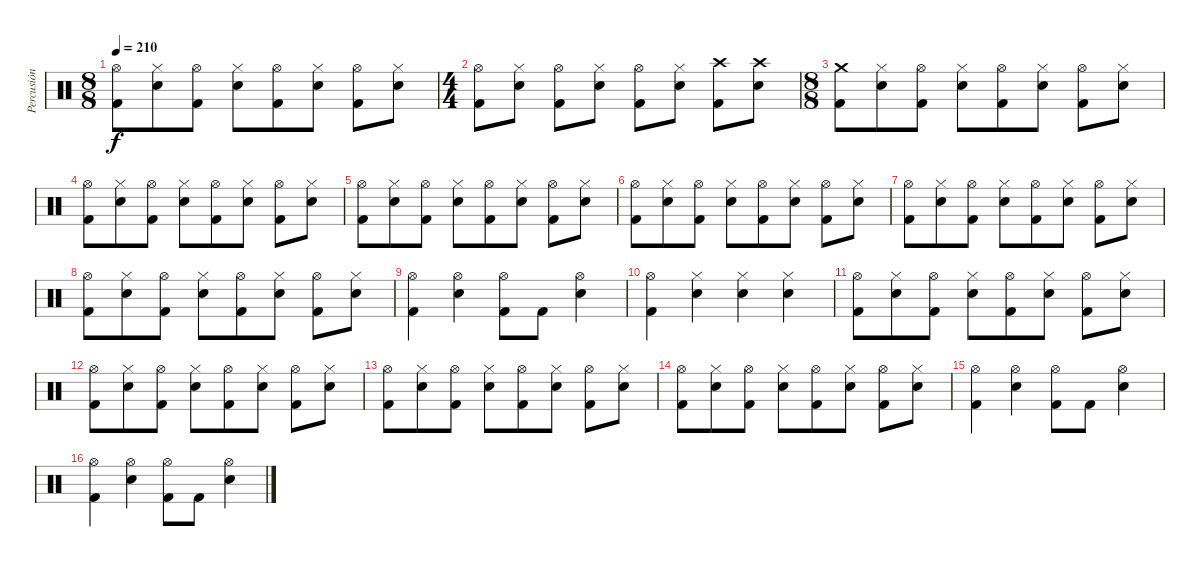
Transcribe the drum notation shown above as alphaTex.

\track ("Percusión" "Percusión") {instrument percussion}
\staff {score}
\articulation defaults
\ts (8 8)
\tempo 210
\clef neutral
\ks c
("Hi-Hat (open)" "Kick (hit) 2").8{dy f} ("Hi-Hat (closed)" "Electric Snare (hit)").8 ("Hi-Hat (open)" "Kick (hit) 2").8 ("Hi-Hat (closed)" "Electric Snare (hit)").8 ("Hi-Hat (open)" "Kick (hit) 2").8 ("Hi-Hat (closed)" "Electric Snare (hit)").8 ("Hi-Hat (open)" "Kick (hit) 2").8 ("Hi-Hat (closed)" "Electric Snare (hit)").8 |
\ts (4 4)
("Hi-Hat (open)" "Kick (hit) 2").8 ("Hi-Hat (closed)" "Electric Snare (hit)").8 ("Hi-Hat (open)" "Kick (hit) 2").8 ("Hi-Hat (closed)" "Electric Snare (hit)").8 ("Hi-Hat (open)" "Kick (hit) 2").8 ("Hi-Hat (closed)" "Electric Snare (hit)").8 ("Crash high (hit)" "Kick (hit) 2").8 ("Crash high (hit)" "Electric Snare (hit)").8 |
\ts (8 8)
("Crash medium (hit)" "Kick (hit) 2").8 ("Hi-Hat (closed)" "Electric Snare (hit)").8 ("Hi-Hat (open)" "Kick (hit) 2").8 ("Hi-Hat (closed)" "Electric Snare (hit)").8 ("Hi-Hat (open)" "Kick (hit) 2").8 ("Hi-Hat (closed)" "Electric Snare (hit)").8 ("Hi-Hat (open)" "Kick (hit) 2").8 ("Hi-Hat (closed)" "Electric Snare (hit)").8 |
("Hi-Hat (open)" "Kick (hit) 2").8 ("Hi-Hat (closed)" "Electric Snare (hit)").8 ("Hi-Hat (open)" "Kick (hit) 2").8 ("Hi-Hat (closed)" "Electric Snare (hit)").8 ("Hi-Hat (open)" "Kick (hit) 2").8 ("Hi-Hat (closed)" "Electric Snare (hit)").8 ("Hi-Hat (open)" "Kick (hit) 2").8 ("Hi-Hat (closed)" "Electric Snare (hit)").8 |
("Hi-Hat (open)" "Kick (hit) 2").8 ("Hi-Hat (closed)" "Electric Snare (hit)").8 ("Hi-Hat (open)" "Kick (hit) 2").8 ("Hi-Hat (closed)" "Electric Snare (hit)").8 ("Hi-Hat (open)" "Kick (hit) 2").8 ("Hi-Hat (closed)" "Electric Snare (hit)").8 ("Hi-Hat (open)" "Kick (hit) 2").8 ("Hi-Hat (closed)" "Electric Snare (hit)").8 |
("Hi-Hat (open)" "Kick (hit) 2").8 ("Hi-Hat (closed)" "Electric Snare (hit)").8 ("Hi-Hat (open)" "Kick (hit) 2").8 ("Hi-Hat (closed)" "Electric Snare (hit)").8 ("Hi-Hat (open)" "Kick (hit) 2").8 ("Hi-Hat (closed)" "Electric Snare (hit)").8 ("Hi-Hat (open)" "Kick (hit) 2").8 ("Hi-Hat (closed)" "Electric Snare (hit)").8 |
("Hi-Hat (open)" "Kick (hit) 2").8 ("Hi-Hat (closed)" "Electric Snare (hit)").8 ("Hi-Hat (open)" "Kick (hit) 2").8 ("Hi-Hat (closed)" "Electric Snare (hit)").8 ("Hi-Hat (open)" "Kick (hit) 2").8 ("Hi-Hat (closed)" "Electric Snare (hit)").8 ("Hi-Hat (open)" "Kick (hit) 2").8 ("Hi-Hat (closed)" "Electric Snare (hit)").8 |
("Hi-Hat (open)" "Kick (hit) 2").8 ("Hi-Hat (closed)" "Electric Snare (hit)").8 ("Hi-Hat (open)" "Kick (hit) 2").8 ("Hi-Hat (closed)" "Electric Snare (hit)").8 ("Hi-Hat (open)" "Kick (hit) 2").8 ("Hi-Hat (closed)" "Electric Snare (hit)").8 ("Hi-Hat (open)" "Kick (hit) 2").8 ("Hi-Hat (closed)" "Electric Snare (hit)").8 |
("Hi-Hat (open)" "Kick (hit) 2").4 ("Hi-Hat (open)" "Electric Snare (hit)").4 ("Hi-Hat (open)" "Kick (hit) 2").8 "Kick (hit) 2".8 ("Hi-Hat (open)" "Electric Snare (hit)").4 |
("Hi-Hat (open)" "Kick (hit) 2").4 ("Hi-Hat (closed)" "Electric Snare (hit)").4 ("Hi-Hat (closed)" "Electric Snare (hit)").4 ("Hi-Hat (closed)" "Electric Snare (hit)").4 |
("Hi-Hat (open)" "Kick (hit) 2").8 ("Hi-Hat (closed)" "Electric Snare (hit)").8 ("Hi-Hat (open)" "Kick (hit) 2").8 ("Hi-Hat (closed)" "Electric Snare (hit)").8 ("Hi-Hat (open)" "Kick (hit) 2").8 ("Hi-Hat (closed)" "Electric Snare (hit)").8 ("Hi-Hat (open)" "Kick (hit) 2").8 ("Hi-Hat (closed)" "Electric Snare (hit)").8 |
("Hi-Hat (open)" "Kick (hit) 2").8 ("Hi-Hat (closed)" "Electric Snare (hit)").8 ("Hi-Hat (open)" "Kick (hit) 2").8 ("Hi-Hat (closed)" "Electric Snare (hit)").8 ("Hi-Hat (open)" "Kick (hit) 2").8 ("Hi-Hat (closed)" "Electric Snare (hit)").8 ("Hi-Hat (open)" "Kick (hit) 2").8 ("Hi-Hat (closed)" "Electric Snare (hit)").8 |
("Hi-Hat (open)" "Kick (hit) 2").8 ("Hi-Hat (closed)" "Electric Snare (hit)").8 ("Hi-Hat (open)" "Kick (hit) 2").8 ("Hi-Hat (closed)" "Electric Snare (hit)").8 ("Hi-Hat (open)" "Kick (hit) 2").8 ("Hi-Hat (closed)" "Electric Snare (hit)").8 ("Hi-Hat (open)" "Kick (hit) 2").8 ("Hi-Hat (closed)" "Electric Snare (hit)").8 |
("Hi-Hat (open)" "Kick (hit) 2").8 ("Hi-Hat (closed)" "Electric Snare (hit)").8 ("Hi-Hat (open)" "Kick (hit) 2").8 ("Hi-Hat (closed)" "Electric Snare (hit)").8 ("Hi-Hat (open)" "Kick (hit) 2").8 ("Hi-Hat (closed)" "Electric Snare (hit)").8 ("Hi-Hat (open)" "Kick (hit) 2").8 ("Hi-Hat (closed)" "Electric Snare (hit)").8 |
("Hi-Hat (open)" "Kick (hit) 2").4 ("Hi-Hat (open)" "Electric Snare (hit)").4 ("Hi-Hat (open)" "Kick (hit) 2").8 "Kick (hit) 2".8 ("Hi-Hat (open)" "Electric Snare (hit)").4 |
("Hi-Hat (open)" "Kick (hit) 2").4 ("Hi-Hat (open)" "Electric Snare (hit)").4 ("Hi-Hat (open)" "Kick (hit) 2").8 "Kick (hit) 2".8 ("Hi-Hat (open)" "Electric Snare (hit)").4
